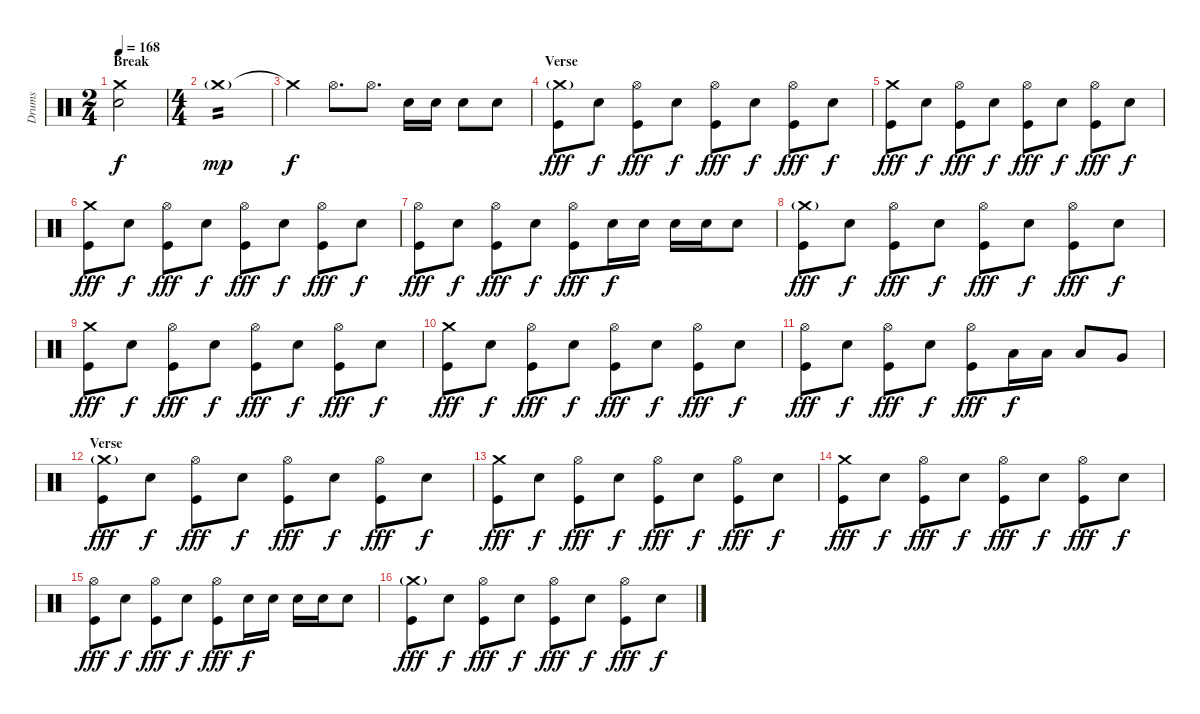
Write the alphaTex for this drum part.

\track ("Drums" "Drums") {instrument percussion}
\staff {score}
\articulation defaults
\ts (2 4)
\section ("" "Break")
\tempo 168
\clef neutral
\ks c
("Crash medium (hit)" "Snare (hit) 2").2{dy f} |
\ts (4 4)
"Crash medium (hit)"{g}.1{tp 2 dy mp} |
"Crash medium (hit)"{t}.4{dy f} "Hi-Hat (open)".8{d} "Hi-Hat (open)".8{d} "Snare (hit) 2".16 "Snare (hit) 2".16 "Snare (hit) 2".8 "Snare (hit) 2".8 |
\section ("" "Verse")
("Crash medium (hit)"{g} "Kick (hit)").8{dy fff} "Snare (hit) 2".8{dy f} ("Hi-Hat (open)" "Kick (hit)").8{dy fff} "Snare (hit) 2".8{dy f} ("Hi-Hat (open)" "Kick (hit)").8{dy fff} "Snare (hit) 2".8{dy f} ("Hi-Hat (open)" "Kick (hit)").8{dy fff} "Snare (hit) 2".8{dy f} |
("Crash medium (hit)" "Kick (hit)").8{dy fff} "Snare (hit) 2".8{dy f} ("Hi-Hat (open)" "Kick (hit)").8{dy fff} "Snare (hit) 2".8{dy f} ("Hi-Hat (open)" "Kick (hit)").8{dy fff} "Snare (hit) 2".8{dy f} ("Hi-Hat (open)" "Kick (hit)").8{dy fff} "Snare (hit) 2".8{dy f} |
("Crash medium (hit)" "Kick (hit)").8{dy fff} "Snare (hit) 2".8{dy f} ("Hi-Hat (open)" "Kick (hit)").8{dy fff} "Snare (hit) 2".8{dy f} ("Hi-Hat (open)" "Kick (hit)").8{dy fff} "Snare (hit) 2".8{dy f} ("Hi-Hat (open)" "Kick (hit)").8{dy fff} "Snare (hit) 2".8{dy f} |
("Hi-Hat (open)" "Kick (hit)").8{dy fff} "Snare (hit) 2".8{dy f} ("Hi-Hat (open)" "Kick (hit)").8{dy fff} "Snare (hit) 2".8{dy f} ("Hi-Hat (open)" "Kick (hit)").8{dy fff} "Snare (hit) 2".16{dy f} "Snare (hit) 2".16 "Snare (hit) 2".16 "Snare (hit) 2".16 "Snare (hit) 2".8 |
("Crash medium (hit)"{g} "Kick (hit)").8{dy fff} "Snare (hit) 2".8{dy f} ("Hi-Hat (open)" "Kick (hit)").8{dy fff} "Snare (hit) 2".8{dy f} ("Hi-Hat (open)" "Kick (hit)").8{dy fff} "Snare (hit) 2".8{dy f} ("Hi-Hat (open)" "Kick (hit)").8{dy fff} "Snare (hit) 2".8{dy f} |
("Crash medium (hit)" "Kick (hit)").8{dy fff} "Snare (hit) 2".8{dy f} ("Hi-Hat (open)" "Kick (hit)").8{dy fff} "Snare (hit) 2".8{dy f} ("Hi-Hat (open)" "Kick (hit)").8{dy fff} "Snare (hit) 2".8{dy f} ("Hi-Hat (open)" "Kick (hit)").8{dy fff} "Snare (hit) 2".8{dy f} |
("Crash medium (hit)" "Kick (hit)").8{dy fff} "Snare (hit) 2".8{dy f} ("Hi-Hat (open)" "Kick (hit)").8{dy fff} "Snare (hit) 2".8{dy f} ("Hi-Hat (open)" "Kick (hit)").8{dy fff} "Snare (hit) 2".8{dy f} ("Hi-Hat (open)" "Kick (hit)").8{dy fff} "Snare (hit) 2".8{dy f} |
("Hi-Hat (open)" "Kick (hit)").8{dy fff} "Snare (hit) 2".8{dy f} ("Hi-Hat (open)" "Kick (hit)").8{dy fff} "Snare (hit) 2".8{dy f} ("Hi-Hat (open)" "Kick (hit)").8{dy fff} "Low Tom (hit)".16{dy f} "Low Tom (hit)".16 "Low Tom (hit)".8 "Very Low Tom (hit)".8 |
\section ("" "Verse")
("Crash medium (hit)"{g} "Kick (hit)").8{dy fff} "Snare (hit) 2".8{dy f} ("Hi-Hat (open)" "Kick (hit)").8{dy fff} "Snare (hit) 2".8{dy f} ("Hi-Hat (open)" "Kick (hit)").8{dy fff} "Snare (hit) 2".8{dy f} ("Hi-Hat (open)" "Kick (hit)").8{dy fff} "Snare (hit) 2".8{dy f} |
("Crash medium (hit)" "Kick (hit)").8{dy fff} "Snare (hit) 2".8{dy f} ("Hi-Hat (open)" "Kick (hit)").8{dy fff} "Snare (hit) 2".8{dy f} ("Hi-Hat (open)" "Kick (hit)").8{dy fff} "Snare (hit) 2".8{dy f} ("Hi-Hat (open)" "Kick (hit)").8{dy fff} "Snare (hit) 2".8{dy f} |
("Crash medium (hit)" "Kick (hit)").8{dy fff} "Snare (hit) 2".8{dy f} ("Hi-Hat (open)" "Kick (hit)").8{dy fff} "Snare (hit) 2".8{dy f} ("Hi-Hat (open)" "Kick (hit)").8{dy fff} "Snare (hit) 2".8{dy f} ("Hi-Hat (open)" "Kick (hit)").8{dy fff} "Snare (hit) 2".8{dy f} |
("Hi-Hat (open)" "Kick (hit)").8{dy fff} "Snare (hit) 2".8{dy f} ("Hi-Hat (open)" "Kick (hit)").8{dy fff} "Snare (hit) 2".8{dy f} ("Hi-Hat (open)" "Kick (hit)").8{dy fff} "Snare (hit) 2".16{dy f} "Snare (hit) 2".16 "Snare (hit) 2".16 "Snare (hit) 2".16 "Snare (hit) 2".8 |
("Crash medium (hit)"{g} "Kick (hit)").8{dy fff} "Snare (hit) 2".8{dy f} ("Hi-Hat (open)" "Kick (hit)").8{dy fff} "Snare (hit) 2".8{dy f} ("Hi-Hat (open)" "Kick (hit)").8{dy fff} "Snare (hit) 2".8{dy f} ("Hi-Hat (open)" "Kick (hit)").8{dy fff} "Snare (hit) 2".8{dy f}
